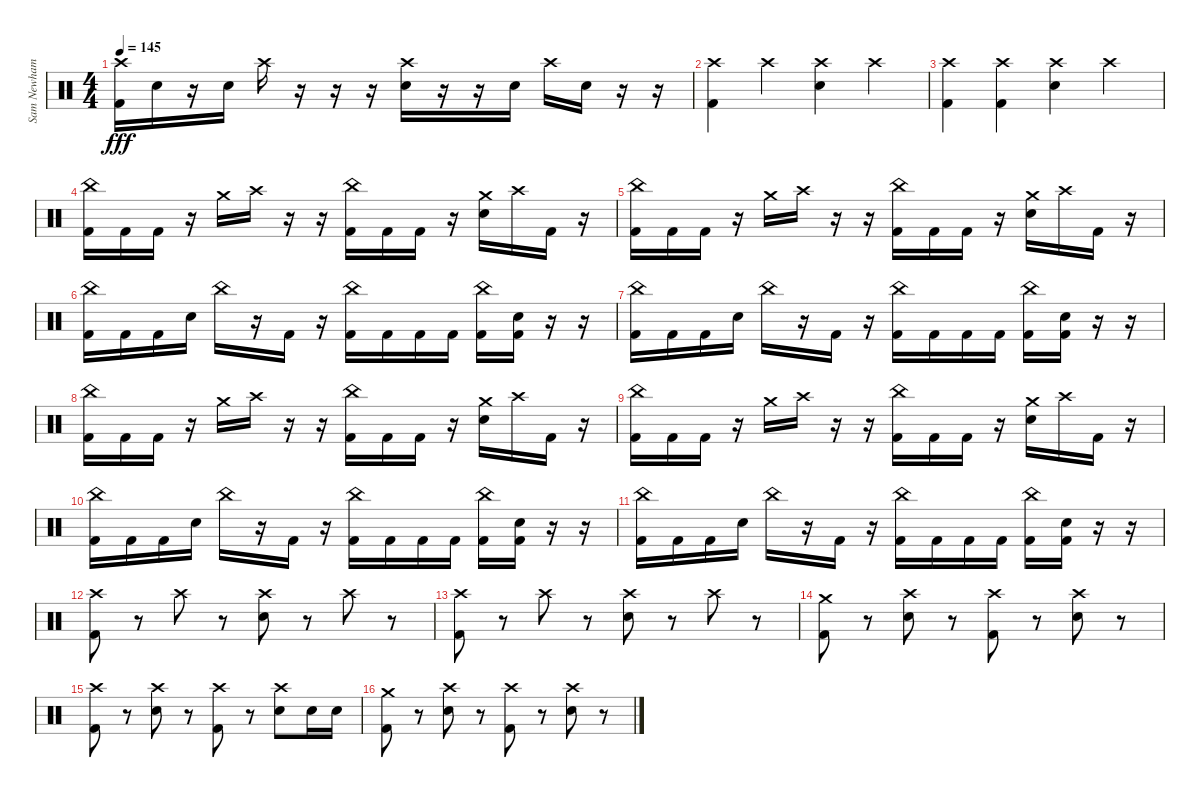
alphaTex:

\track ("Sam Newham" "Sam Newham") {instrument percussion}
\staff {score}
\articulation defaults
\ts (4 4)
\tempo 145
\clef neutral
\ks c
("Crash high (hit)" "Kick (hit) 2").16{dy fff} "Electric Snare (hit)".16 r.16 "Electric Snare (hit)".16 "Crash high (hit)".16 r.16 r.16 r.16 ("Crash high (hit)" "Electric Snare (hit)").16 r.16 r.16 "Electric Snare (hit)".16 "Crash high (hit)".16 "Electric Snare (hit)".16 r.16 r.16 |
("Crash high (hit)" "Kick (hit) 2").4 "Crash high (hit)".4 ("Crash high (hit)" "Electric Snare (hit)").4 "Crash high (hit)".4 |
("Crash high (hit)" "Kick (hit) 2").4 ("Crash high (hit)" "Kick (hit) 2").4 ("Crash high (hit)" "Electric Snare (hit)").4 "Crash high (hit)".4 |
("China (hit)" "Kick (hit) 2").16 "Kick (hit) 2".16 "Kick (hit) 2".16 r.16 "Crash medium (hit)".16 "Crash high (hit)".16 r.16 r.16 ("China (hit)" "Kick (hit) 2").16 "Kick (hit) 2".16 "Kick (hit) 2".16 r.16 ("Crash medium (hit)" "Electric Snare (hit)").16 "Crash high (hit)".16 "Kick (hit) 2".16 r.16 |
("China (hit)" "Kick (hit) 2").16 "Kick (hit) 2".16 "Kick (hit) 2".16 r.16 "Crash medium (hit)".16 "Crash high (hit)".16 r.16 r.16 ("China (hit)" "Kick (hit) 2").16 "Kick (hit) 2".16 "Kick (hit) 2".16 r.16 ("Crash medium (hit)" "Electric Snare (hit)").16 "Crash high (hit)".16 "Kick (hit) 2".16 r.16 |
("China (hit)" "Kick (hit) 2").16 "Kick (hit) 2".16 "Kick (hit) 2".16 "Electric Snare (hit)".16 "China (hit)".16 r.16 "Kick (hit) 2".16 r.16 ("China (hit)" "Kick (hit) 2").16 "Kick (hit) 2".16 "Kick (hit) 2".16 "Kick (hit) 2".16 ("China (hit)" "Kick (hit) 2").16 ("Electric Snare (hit)" "Kick (hit) 2").16 r.16 r.16 |
("China (hit)" "Kick (hit) 2").16 "Kick (hit) 2".16 "Kick (hit) 2".16 "Electric Snare (hit)".16 "China (hit)".16 r.16 "Kick (hit) 2".16 r.16 ("China (hit)" "Kick (hit) 2").16 "Kick (hit) 2".16 "Kick (hit) 2".16 "Kick (hit) 2".16 ("China (hit)" "Kick (hit) 2").16 ("Electric Snare (hit)" "Kick (hit) 2").16 r.16 r.16 |
("China (hit)" "Kick (hit) 2").16 "Kick (hit) 2".16 "Kick (hit) 2".16 r.16 "Crash medium (hit)".16 "Crash high (hit)".16 r.16 r.16 ("China (hit)" "Kick (hit) 2").16 "Kick (hit) 2".16 "Kick (hit) 2".16 r.16 ("Crash medium (hit)" "Electric Snare (hit)").16 "Crash high (hit)".16 "Kick (hit) 2".16 r.16 |
("China (hit)" "Kick (hit) 2").16 "Kick (hit) 2".16 "Kick (hit) 2".16 r.16 "Crash medium (hit)".16 "Crash high (hit)".16 r.16 r.16 ("China (hit)" "Kick (hit) 2").16 "Kick (hit) 2".16 "Kick (hit) 2".16 r.16 ("Crash medium (hit)" "Electric Snare (hit)").16 "Crash high (hit)".16 "Kick (hit) 2".16 r.16 |
("China (hit)" "Kick (hit) 2").16 "Kick (hit) 2".16 "Kick (hit) 2".16 "Electric Snare (hit)".16 "China (hit)".16 r.16 "Kick (hit) 2".16 r.16 ("China (hit)" "Kick (hit) 2").16 "Kick (hit) 2".16 "Kick (hit) 2".16 "Kick (hit) 2".16 ("China (hit)" "Kick (hit) 2").16 ("Electric Snare (hit)" "Kick (hit) 2").16 r.16 r.16 |
("China (hit)" "Kick (hit) 2").16 "Kick (hit) 2".16 "Kick (hit) 2".16 "Electric Snare (hit)".16 "China (hit)".16 r.16 "Kick (hit) 2".16 r.16 ("China (hit)" "Kick (hit) 2").16 "Kick (hit) 2".16 "Kick (hit) 2".16 "Kick (hit) 2".16 ("China (hit)" "Kick (hit) 2").16 ("Electric Snare (hit)" "Kick (hit) 2").16 r.16 r.16 |
("Crash high (hit)" "Kick (hit) 2").8 r.8 "Crash high (hit)".8 r.8 ("Crash high (hit)" "Electric Snare (hit)").8 r.8 "Crash high (hit)".8 r.8 |
("Crash high (hit)" "Kick (hit) 2").8 r.8 "Crash high (hit)".8 r.8 ("Crash high (hit)" "Electric Snare (hit)").8 r.8 "Crash high (hit)".8 r.8 |
("Crash medium (hit)" "Kick (hit) 2").8 r.8 ("Crash high (hit)" "Electric Snare (hit)").8 r.8 ("Crash high (hit)" "Kick (hit) 2").8 r.8 ("Crash high (hit)" "Electric Snare (hit)").8 r.8 |
("Crash high (hit)" "Kick (hit) 2").8 r.8 ("Crash high (hit)" "Electric Snare (hit)").8 r.8 ("Crash high (hit)" "Kick (hit) 2").8 r.8 ("Crash high (hit)" "Electric Snare (hit)").8 "Electric Snare (hit)".16 "Electric Snare (hit)".16 |
("Crash medium (hit)" "Kick (hit) 2").8 r.8 ("Crash high (hit)" "Electric Snare (hit)").8 r.8 ("Crash high (hit)" "Kick (hit) 2").8 r.8 ("Crash high (hit)" "Electric Snare (hit)").8 r.8
